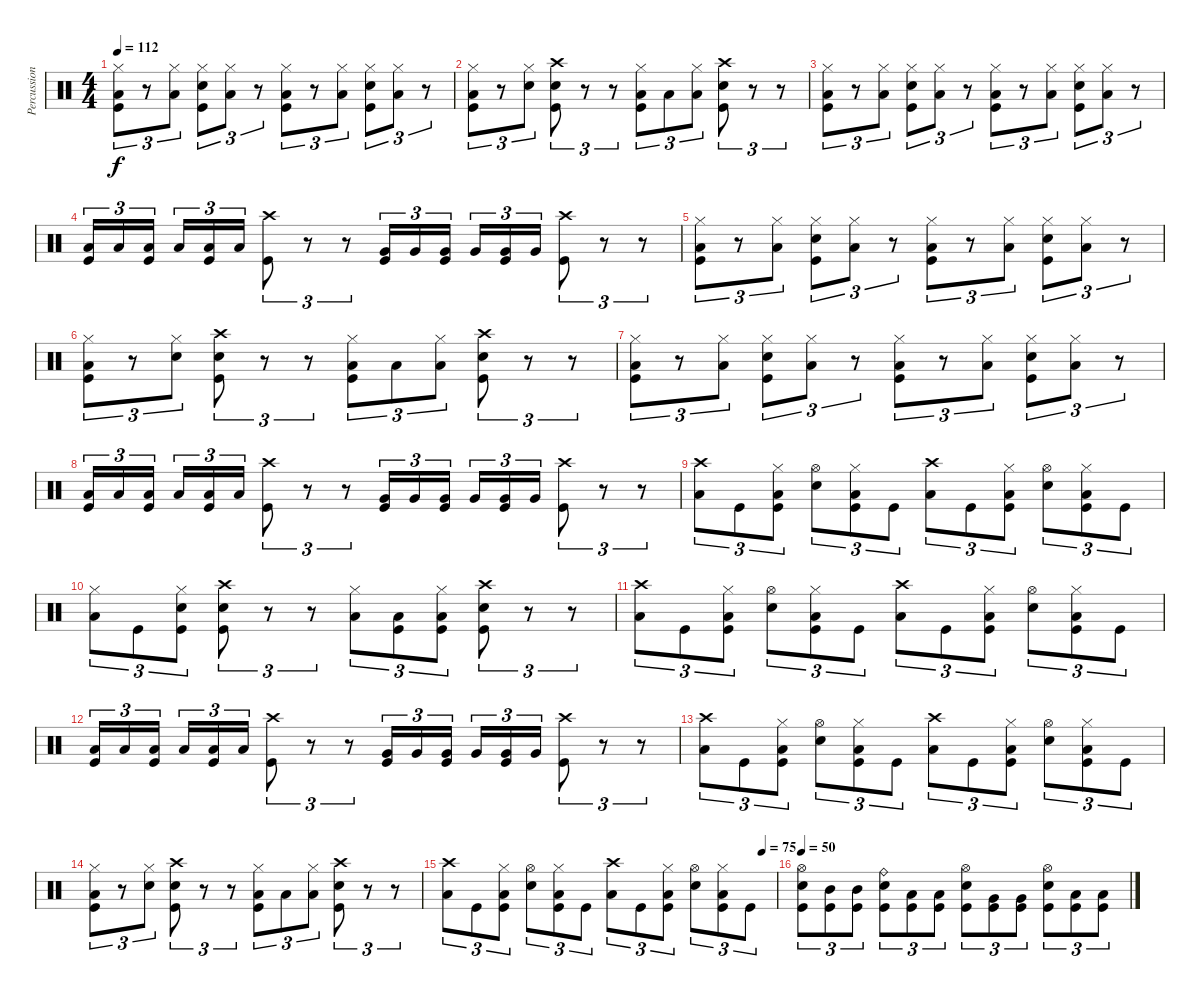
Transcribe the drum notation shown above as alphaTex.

\track ("Percussion" "Percussion") {instrument percussion}
\staff {score}
\articulation defaults
\ts (4 4)
\tempo 112
\clef neutral
\ks c
("Hi-Hat (closed)" "Low Tom (hit)" "Kick (hit)").8{tu (3 2) dy f} r.8{tu (3 2)} ("Hi-Hat (closed)" "Low Tom (hit)").8{tu (3 2)} ("Hi-Hat (closed)" "Snare (hit) 2" "Kick (hit)").8{tu (3 2)} ("Hi-Hat (closed)" "Low Tom (hit)").8{tu (3 2)} r.8{tu (3 2)} ("Hi-Hat (closed)" "Low Tom (hit)" "Kick (hit)").8{tu (3 2)} r.8{tu (3 2)} ("Hi-Hat (closed)" "Low Tom (hit)").8{tu (3 2)} ("Hi-Hat (closed)" "Snare (hit) 2" "Kick (hit)").8{tu (3 2)} ("Hi-Hat (closed)" "Low Tom (hit)").8{tu (3 2)} r.8{tu (3 2)} |
("Hi-Hat (closed)" "Low Tom (hit)" "Kick (hit)").8{tu (3 2)} r.8{tu (3 2)} ("Hi-Hat (closed)" "Electric Snare (hit)").8{tu (3 2)} ("Crash high (hit)" "Snare (hit) 2" "Kick (hit)").8{tu (3 2)} r.8{tu (3 2)} r.8{tu (3 2)} ("Hi-Hat (closed)" "Low Tom (hit)" "Kick (hit)").8{tu (3 2)} "Low Tom (hit)".8{tu (3 2)} ("Hi-Hat (closed)" "Low Tom (hit)").8{tu (3 2)} ("Crash high (hit)" "Snare (hit) 2" "Kick (hit)").8{tu (3 2)} r.8{tu (3 2)} r.8{tu (3 2)} |
("Hi-Hat (closed)" "Low Tom (hit)" "Kick (hit)").8{tu (3 2)} r.8{tu (3 2)} ("Hi-Hat (closed)" "Low Tom (hit)").8{tu (3 2)} ("Hi-Hat (closed)" "Snare (hit) 2" "Kick (hit)").8{tu (3 2)} ("Hi-Hat (closed)" "Low Tom (hit)").8{tu (3 2)} r.8{tu (3 2)} ("Hi-Hat (closed)" "Low Tom (hit)" "Kick (hit)").8{tu (3 2)} r.8{tu (3 2)} ("Hi-Hat (closed)" "Low Tom (hit)").8{tu (3 2)} ("Hi-Hat (closed)" "Snare (hit) 2" "Kick (hit)").8{tu (3 2)} ("Hi-Hat (closed)" "Low Tom (hit)").8{tu (3 2)} r.8{tu (3 2)} |
("Low Tom (hit)" "Kick (hit)").16{tu (3 2)} "Low Tom (hit)".16{tu (3 2)} ("Low Tom (hit)" "Kick (hit)").16{tu (3 2)} "Low Tom (hit)".16{tu (3 2)} ("Low Tom (hit)" "Kick (hit)").16{tu (3 2)} "Low Tom (hit)".16{tu (3 2)} ("Crash high (hit)" "Kick (hit)").8{tu (3 2)} r.8{tu (3 2)} r.8{tu (3 2)} ("Very Low Tom (hit)" "Kick (hit)").16{tu (3 2)} "Very Low Tom (hit)".16{tu (3 2)} ("Very Low Tom (hit)" "Kick (hit)").16{tu (3 2)} "Very Low Tom (hit)".16{tu (3 2)} ("Very Low Tom (hit)" "Kick (hit)").16{tu (3 2)} "Very Low Tom (hit)".16{tu (3 2)} ("Crash high (hit)" "Kick (hit)").8{tu (3 2)} r.8{tu (3 2)} r.8{tu (3 2)} |
("Hi-Hat (closed)" "Low Tom (hit)" "Kick (hit)").8{tu (3 2)} r.8{tu (3 2)} ("Hi-Hat (closed)" "Low Tom (hit)").8{tu (3 2)} ("Hi-Hat (closed)" "Snare (hit) 2" "Kick (hit)").8{tu (3 2)} ("Hi-Hat (closed)" "Low Tom (hit)").8{tu (3 2)} r.8{tu (3 2)} ("Hi-Hat (closed)" "Low Tom (hit)" "Kick (hit)").8{tu (3 2)} r.8{tu (3 2)} ("Hi-Hat (closed)" "Low Tom (hit)").8{tu (3 2)} ("Hi-Hat (closed)" "Snare (hit) 2" "Kick (hit)").8{tu (3 2)} ("Hi-Hat (closed)" "Low Tom (hit)").8{tu (3 2)} r.8{tu (3 2)} |
("Hi-Hat (closed)" "Low Tom (hit)" "Kick (hit)").8{tu (3 2)} r.8{tu (3 2)} ("Hi-Hat (closed)" "Electric Snare (hit)").8{tu (3 2)} ("Crash high (hit)" "Snare (hit) 2" "Kick (hit)").8{tu (3 2)} r.8{tu (3 2)} r.8{tu (3 2)} ("Hi-Hat (closed)" "Low Tom (hit)" "Kick (hit)").8{tu (3 2)} "Low Tom (hit)".8{tu (3 2)} ("Hi-Hat (closed)" "Low Tom (hit)").8{tu (3 2)} ("Crash high (hit)" "Snare (hit) 2" "Kick (hit)").8{tu (3 2)} r.8{tu (3 2)} r.8{tu (3 2)} |
("Hi-Hat (closed)" "Low Tom (hit)" "Kick (hit)").8{tu (3 2)} r.8{tu (3 2)} ("Hi-Hat (closed)" "Low Tom (hit)").8{tu (3 2)} ("Hi-Hat (closed)" "Snare (hit) 2" "Kick (hit)").8{tu (3 2)} ("Hi-Hat (closed)" "Low Tom (hit)").8{tu (3 2)} r.8{tu (3 2)} ("Hi-Hat (closed)" "Low Tom (hit)" "Kick (hit)").8{tu (3 2)} r.8{tu (3 2)} ("Hi-Hat (closed)" "Low Tom (hit)").8{tu (3 2)} ("Hi-Hat (closed)" "Snare (hit) 2" "Kick (hit)").8{tu (3 2)} ("Hi-Hat (closed)" "Low Tom (hit)").8{tu (3 2)} r.8{tu (3 2)} |
("Low Tom (hit)" "Kick (hit)").16{tu (3 2)} "Low Tom (hit)".16{tu (3 2)} ("Low Tom (hit)" "Kick (hit)").16{tu (3 2)} "Low Tom (hit)".16{tu (3 2)} ("Low Tom (hit)" "Kick (hit)").16{tu (3 2)} "Low Tom (hit)".16{tu (3 2)} ("Crash high (hit)" "Kick (hit)").8{tu (3 2)} r.8{tu (3 2)} r.8{tu (3 2)} ("Very Low Tom (hit)" "Kick (hit)").16{tu (3 2)} "Very Low Tom (hit)".16{tu (3 2)} ("Very Low Tom (hit)" "Kick (hit)").16{tu (3 2)} "Very Low Tom (hit)".16{tu (3 2)} ("Very Low Tom (hit)" "Kick (hit)").16{tu (3 2)} "Very Low Tom (hit)".16{tu (3 2)} ("Crash high (hit)" "Kick (hit)").8{tu (3 2)} r.8{tu (3 2)} r.8{tu (3 2)} |
("Crash high (hit)" "Low Tom (hit)").8{tu (3 2)} "Kick (hit)".8{tu (3 2)} ("Hi-Hat (closed)" "Low Tom (hit)" "Kick (hit)").8{tu (3 2)} ("Hi-Hat (open)" "Snare (hit) 2").8{tu (3 2)} ("Hi-Hat (closed)" "Low Tom (hit)" "Kick (hit)").8{tu (3 2)} "Kick (hit)".8{tu (3 2)} ("Crash high (hit)" "Low Tom (hit)").8{tu (3 2)} "Kick (hit)".8{tu (3 2)} ("Hi-Hat (closed)" "Low Tom (hit)" "Kick (hit)").8{tu (3 2)} ("Hi-Hat (open)" "Snare (hit) 2").8{tu (3 2)} ("Hi-Hat (closed)" "Low Tom (hit)" "Kick (hit)").8{tu (3 2)} "Kick (hit)".8{tu (3 2)} |
("Hi-Hat (closed)" "Low Tom (hit)").8{tu (3 2)} "Kick (hit)".8{tu (3 2)} ("Hi-Hat (closed)" "Electric Snare (hit)" "Kick (hit)").8{tu (3 2)} ("Crash high (hit)" "Snare (hit) 2" "Kick (hit)").8{tu (3 2)} r.8{tu (3 2)} r.8{tu (3 2)} ("Hi-Hat (closed)" "Low Tom (hit)").8{tu (3 2)} ("Low Tom (hit)" "Kick (hit)").8{tu (3 2)} ("Hi-Hat (closed)" "Low Tom (hit)" "Kick (hit)").8{tu (3 2)} ("Crash high (hit)" "Snare (hit) 2" "Kick (hit)").8{tu (3 2)} r.8{tu (3 2)} r.8{tu (3 2)} |
("Crash high (hit)" "Low Tom (hit)").8{tu (3 2)} "Kick (hit)".8{tu (3 2)} ("Hi-Hat (closed)" "Low Tom (hit)" "Kick (hit)").8{tu (3 2)} ("Hi-Hat (open)" "Snare (hit) 2").8{tu (3 2)} ("Hi-Hat (closed)" "Low Tom (hit)" "Kick (hit)").8{tu (3 2)} "Kick (hit)".8{tu (3 2)} ("Crash high (hit)" "Low Tom (hit)").8{tu (3 2)} "Kick (hit)".8{tu (3 2)} ("Hi-Hat (closed)" "Low Tom (hit)" "Kick (hit)").8{tu (3 2)} ("Hi-Hat (open)" "Snare (hit) 2").8{tu (3 2)} ("Hi-Hat (closed)" "Low Tom (hit)" "Kick (hit)").8{tu (3 2)} "Kick (hit)".8{tu (3 2)} |
("Low Tom (hit)" "Kick (hit)").16{tu (3 2)} "Low Tom (hit)".16{tu (3 2)} ("Low Tom (hit)" "Kick (hit)").16{tu (3 2)} "Low Tom (hit)".16{tu (3 2)} ("Low Tom (hit)" "Kick (hit)").16{tu (3 2)} "Low Tom (hit)".16{tu (3 2)} ("Crash high (hit)" "Kick (hit)").8{tu (3 2)} r.8{tu (3 2)} r.8{tu (3 2)} ("Very Low Tom (hit)" "Kick (hit)").16{tu (3 2)} "Very Low Tom (hit)".16{tu (3 2)} ("Very Low Tom (hit)" "Kick (hit)").16{tu (3 2)} "Very Low Tom (hit)".16{tu (3 2)} ("Very Low Tom (hit)" "Kick (hit)").16{tu (3 2)} "Very Low Tom (hit)".16{tu (3 2)} ("Crash high (hit)" "Kick (hit)").8{tu (3 2)} r.8{tu (3 2)} r.8{tu (3 2)} |
("Crash high (hit)" "Low Tom (hit)").8{tu (3 2)} "Kick (hit)".8{tu (3 2)} ("Hi-Hat (closed)" "Low Tom (hit)" "Kick (hit)").8{tu (3 2)} ("Hi-Hat (open)" "Snare (hit) 2").8{tu (3 2)} ("Hi-Hat (closed)" "Low Tom (hit)" "Kick (hit)").8{tu (3 2)} "Kick (hit)".8{tu (3 2)} ("Crash high (hit)" "Low Tom (hit)").8{tu (3 2)} "Kick (hit)".8{tu (3 2)} ("Hi-Hat (closed)" "Low Tom (hit)" "Kick (hit)").8{tu (3 2)} ("Hi-Hat (open)" "Snare (hit) 2").8{tu (3 2)} ("Hi-Hat (closed)" "Low Tom (hit)" "Kick (hit)").8{tu (3 2)} "Kick (hit)".8{tu (3 2)} |
("Hi-Hat (closed)" "Low Tom (hit)" "Kick (hit)").8{tu (3 2)} r.8{tu (3 2)} ("Hi-Hat (closed)" "Electric Snare (hit)").8{tu (3 2)} ("Crash high (hit)" "Snare (hit) 2" "Kick (hit)").8{tu (3 2)} r.8{tu (3 2)} r.8{tu (3 2)} ("Hi-Hat (closed)" "Low Tom (hit)" "Kick (hit)").8{tu (3 2)} "Low Tom (hit)".8{tu (3 2)} ("Hi-Hat (closed)" "Low Tom (hit)").8{tu (3 2)} ("Crash high (hit)" "Snare (hit) 2" "Kick (hit)").8{tu (3 2)} r.8{tu (3 2)} r.8{tu (3 2)} |
\tempo (75 0.9583333333333334)
("Crash high (hit)" "Low Tom (hit)").8{tu (3 2)} "Kick (hit)".8{tu (3 2)} ("Hi-Hat (closed)" "Low Tom (hit)" "Kick (hit)").8{tu (3 2)} ("Hi-Hat (open)" "Snare (hit) 2").8{tu (3 2)} ("Hi-Hat (closed)" "Low Tom (hit)" "Kick (hit)").8{tu (3 2)} "Kick (hit)".8{tu (3 2)} ("Crash high (hit)" "Low Tom (hit)").8{tu (3 2)} "Kick (hit)".8{tu (3 2)} ("Hi-Hat (closed)" "Low Tom (hit)" "Kick (hit)").8{tu (3 2)} ("Hi-Hat (open)" "Snare (hit) 2").8{tu (3 2)} ("Hi-Hat (closed)" "Low Tom (hit)" "Kick (hit)").8{tu (3 2)} "Kick (hit)".8{tu (3 2)} |
\tempo 50
("Hi-Hat (open)" "Snare (hit) 2" "Kick (hit)").8{tu (3 2)} ("Mid Tom (hit)" "Kick (hit)").8{tu (3 2)} ("Mid Tom (hit)" "Kick (hit)").8{tu (3 2)} ("Ride (bell)" "Snare (hit) 2" "Kick (hit)").8{tu (3 2)} ("Low Tom (hit)" "Kick (hit)").8{tu (3 2)} ("Low Tom (hit)" "Kick (hit)").8{tu (3 2)} ("Hi-Hat (open)" "Snare (hit) 2" "Kick (hit)").8{tu (3 2)} ("Very Low Tom (hit)" "Kick (hit)").8{tu (3 2)} ("Very Low Tom (hit)" "Kick (hit)").8{tu (3 2)} ("Hi-Hat (open)" "Snare (hit) 2" "Kick (hit)").8{tu (3 2)} ("Low Floor Tom (hit)" "Kick (hit)").8{tu (3 2)} ("Low Floor Tom (hit)" "Kick (hit)").8{tu (3 2)}
